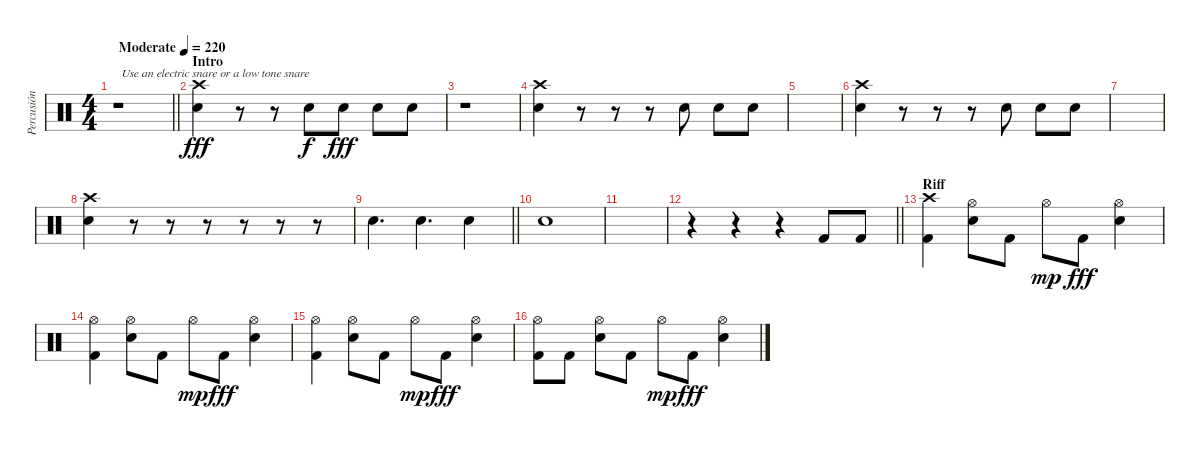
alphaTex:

\track ("Percusión" "Percusión") {instrument percussion}
\staff {score}
\articulation defaults
\ts (4 4)
\tempo (220 "Moderate")
\clef neutral
\barLineRight lightlight
\ks c
r.1{txt " Use an electric snare or a low tone snare" dy fff} |
\section ("" "Intro")
("Crash high (hit)" "Snare (hit) 2").4 r.8 r.8 "Snare (hit) 2".8{dy f} "Snare (hit) 2".8{dy fff} "Snare (hit) 2".8 "Snare (hit) 2".8 |
r.1 |
("Crash high (hit)" "Snare (hit) 2").4 r.8 r.8 r.8 "Snare (hit) 2".8 "Snare (hit) 2".8 "Snare (hit) 2".8 |
|
("Crash high (hit)" "Snare (hit) 2").4 r.8 r.8 r.8 "Snare (hit) 2".8 "Snare (hit) 2".8 "Snare (hit) 2".8 |
|
("Crash high (hit)" "Snare (hit) 2").4 r.8 r.8 r.8 r.8 r.8 r.8 |
\barLineRight lightlight "Snare (hit) 2".4{d} "Snare (hit) 2".4{d} "Snare (hit) 2".4
|
"Snare (hit) 2".1 |
|
\barLineRight lightlight
r.4 r.4 r.4 "Kick (hit) 2".8 "Kick (hit) 2".8 |
\section ("" "Riff")
("Crash high (hit)" "Kick (hit) 2").4 ("Hi-Hat (open)" "Snare (hit) 2").8 "Kick (hit) 2".8 "Hi-Hat (open)".8{dy mp} "Kick (hit) 2".8{dy fff} ("Hi-Hat (open)" "Snare (hit) 2").4 |
("Hi-Hat (open)" "Kick (hit) 2").4 ("Hi-Hat (open)" "Snare (hit) 2").8 "Kick (hit) 2".8 "Hi-Hat (open)".8{dy mp} "Kick (hit) 2".8{dy fff} ("Hi-Hat (open)" "Snare (hit) 2").4 |
("Hi-Hat (open)" "Kick (hit) 2").4 ("Hi-Hat (open)" "Snare (hit) 2").8 "Kick (hit) 2".8 "Hi-Hat (open)".8{dy mp} "Kick (hit) 2".8{dy fff} ("Hi-Hat (open)" "Snare (hit) 2").4 |
("Hi-Hat (open)" "Kick (hit) 2").8 "Kick (hit) 2".8 ("Hi-Hat (open)" "Snare (hit) 2").8 "Kick (hit) 2".8 "Hi-Hat (open)".8{dy mp} "Kick (hit) 2".8{dy fff} ("Hi-Hat (open)" "Snare (hit) 2").4
